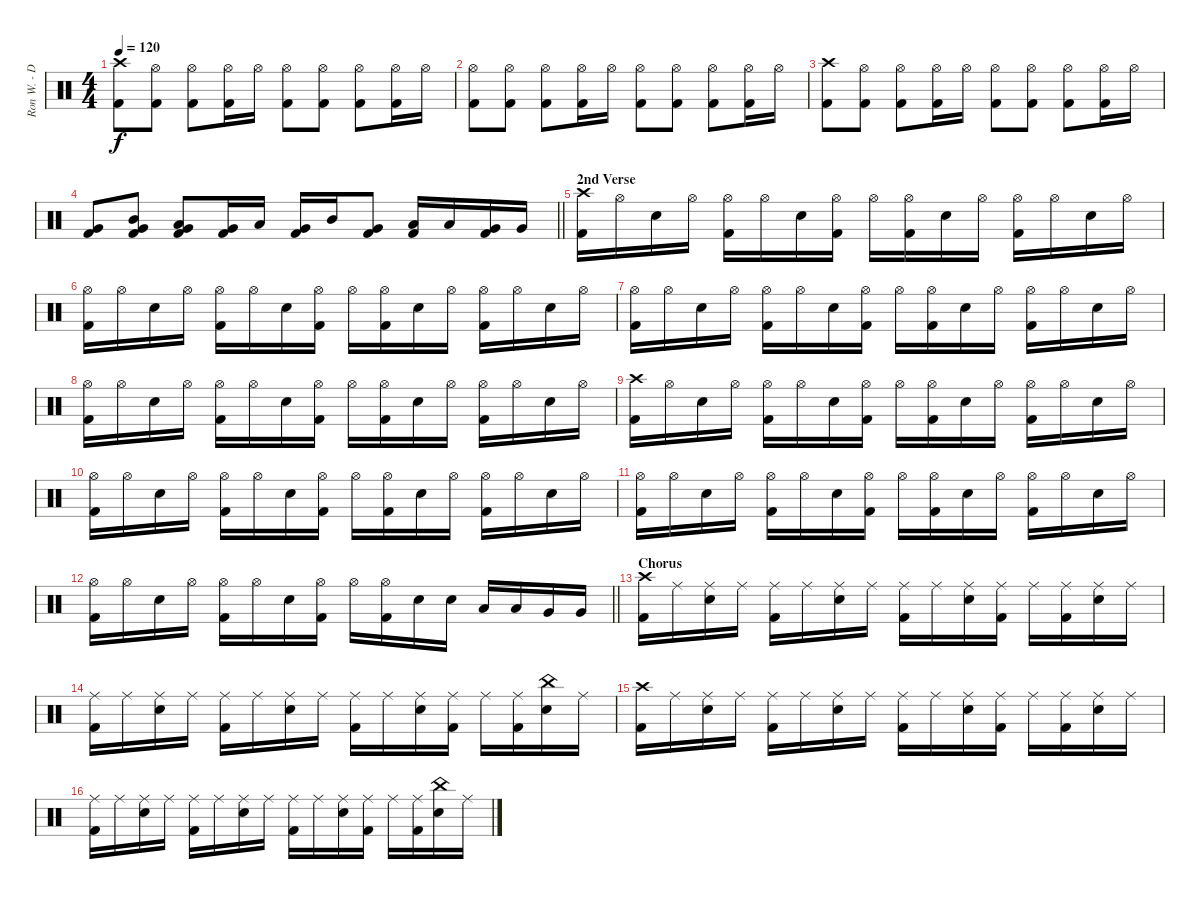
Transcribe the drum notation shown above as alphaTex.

\track ("Ron W. - Drums" "Ron W. - D") {instrument percussion}
\staff {score}
\articulation defaults
\ts (4 4)
\tempo 120
\clef neutral
\ks c
("Crash high (hit)" "Kick (hit) 2").8{dy f} ("Hi-Hat (open)" "Kick (hit) 2").8 ("Hi-Hat (open)" "Kick (hit) 2").8 ("Hi-Hat (open)" "Kick (hit) 2").16 "Hi-Hat (open)".16 ("Hi-Hat (open)" "Kick (hit) 2").8 ("Hi-Hat (open)" "Kick (hit) 2").8 ("Hi-Hat (open)" "Kick (hit) 2").8 ("Hi-Hat (open)" "Kick (hit) 2").16 "Hi-Hat (open)".16 |
("Hi-Hat (open)" "Kick (hit) 2").8 ("Hi-Hat (open)" "Kick (hit) 2").8 ("Hi-Hat (open)" "Kick (hit) 2").8 ("Hi-Hat (open)" "Kick (hit) 2").16 "Hi-Hat (open)".16 ("Hi-Hat (open)" "Kick (hit) 2").8 ("Hi-Hat (open)" "Kick (hit) 2").8 ("Hi-Hat (open)" "Kick (hit) 2").8 ("Hi-Hat (open)" "Kick (hit) 2").16 "Hi-Hat (open)".16 |
("Crash high (hit)" "Kick (hit) 2").8 ("Hi-Hat (open)" "Kick (hit) 2").8 ("Hi-Hat (open)" "Kick (hit) 2").8 ("Hi-Hat (open)" "Kick (hit) 2").16 "Hi-Hat (open)".16 ("Hi-Hat (open)" "Kick (hit) 2").8 ("Hi-Hat (open)" "Kick (hit) 2").8 ("Hi-Hat (open)" "Kick (hit) 2").8 ("Hi-Hat (open)" "Kick (hit) 2").16 "Hi-Hat (open)".16 |
\barLineRight lightlight
("Very Low Tom (hit)" "Kick (hit) 2").8 ("Mid Tom (hit)" "Very Low Tom (hit)" "Kick (hit) 2").8 ("Low Tom (hit)" "Very Low Tom (hit)" "Kick (hit) 2").8 ("Very Low Tom (hit)" "Kick (hit) 2").16 "Low Tom (hit)".16 ("Very Low Tom (hit)" "Kick (hit) 2").16 "Mid Tom (hit)".16 ("Very Low Tom (hit)" "Kick (hit) 2").8 ("Low Tom (hit)" "Kick (hit) 2").16 "Low Tom (hit)".16 ("Very Low Tom (hit)" "Kick (hit) 2").16 "Very Low Tom (hit)".16 |
\section ("" "2nd Verse")
("Crash high (hit)" "Kick (hit) 2").16 "Hi-Hat (open)".16 "Snare (hit) 2".16 "Hi-Hat (open)".16 ("Hi-Hat (open)" "Kick (hit) 2").16 "Hi-Hat (open)".16 "Snare (hit) 2".16 ("Hi-Hat (open)" "Kick (hit) 2").16 "Hi-Hat (open)".16 ("Hi-Hat (open)" "Kick (hit) 2").16 "Snare (hit) 2".16 "Hi-Hat (open)".16 ("Hi-Hat (open)" "Kick (hit) 2").16 "Hi-Hat (open)".16 "Snare (hit) 2".16 "Hi-Hat (open)".16 |
("Hi-Hat (open)" "Kick (hit) 2").16 "Hi-Hat (open)".16 "Snare (hit) 2".16 "Hi-Hat (open)".16 ("Hi-Hat (open)" "Kick (hit) 2").16 "Hi-Hat (open)".16 "Snare (hit) 2".16 ("Hi-Hat (open)" "Kick (hit) 2").16 "Hi-Hat (open)".16 ("Hi-Hat (open)" "Kick (hit) 2").16 "Snare (hit) 2".16 "Hi-Hat (open)".16 ("Hi-Hat (open)" "Kick (hit) 2").16 "Hi-Hat (open)".16 "Snare (hit) 2".16 "Hi-Hat (open)".16 |
("Hi-Hat (open)" "Kick (hit) 2").16 "Hi-Hat (open)".16 "Snare (hit) 2".16 "Hi-Hat (open)".16 ("Hi-Hat (open)" "Kick (hit) 2").16 "Hi-Hat (open)".16 "Snare (hit) 2".16 ("Hi-Hat (open)" "Kick (hit) 2").16 "Hi-Hat (open)".16 ("Hi-Hat (open)" "Kick (hit) 2").16 "Snare (hit) 2".16 "Hi-Hat (open)".16 ("Hi-Hat (open)" "Kick (hit) 2").16 "Hi-Hat (open)".16 "Snare (hit) 2".16 "Hi-Hat (open)".16 |
("Hi-Hat (open)" "Kick (hit) 2").16 "Hi-Hat (open)".16 "Snare (hit) 2".16 "Hi-Hat (open)".16 ("Hi-Hat (open)" "Kick (hit) 2").16 "Hi-Hat (open)".16 "Snare (hit) 2".16 ("Hi-Hat (open)" "Kick (hit) 2").16 "Hi-Hat (open)".16 ("Hi-Hat (open)" "Kick (hit) 2").16 "Snare (hit) 2".16 "Hi-Hat (open)".16 ("Hi-Hat (open)" "Kick (hit) 2").16 "Hi-Hat (open)".16 "Snare (hit) 2".16 "Hi-Hat (open)".16 |
("Crash high (hit)" "Kick (hit) 2").16 "Hi-Hat (open)".16 "Snare (hit) 2".16 "Hi-Hat (open)".16 ("Hi-Hat (open)" "Kick (hit) 2").16 "Hi-Hat (open)".16 "Snare (hit) 2".16 ("Hi-Hat (open)" "Kick (hit) 2").16 "Hi-Hat (open)".16 ("Hi-Hat (open)" "Kick (hit) 2").16 "Snare (hit) 2".16 "Hi-Hat (open)".16 ("Hi-Hat (open)" "Kick (hit) 2").16 "Hi-Hat (open)".16 "Snare (hit) 2".16 "Hi-Hat (open)".16 |
("Hi-Hat (open)" "Kick (hit) 2").16 "Hi-Hat (open)".16 "Snare (hit) 2".16 "Hi-Hat (open)".16 ("Hi-Hat (open)" "Kick (hit) 2").16 "Hi-Hat (open)".16 "Snare (hit) 2".16 ("Hi-Hat (open)" "Kick (hit) 2").16 "Hi-Hat (open)".16 ("Hi-Hat (open)" "Kick (hit) 2").16 "Snare (hit) 2".16 "Hi-Hat (open)".16 ("Hi-Hat (open)" "Kick (hit) 2").16 "Hi-Hat (open)".16 "Snare (hit) 2".16 "Hi-Hat (open)".16 |
("Hi-Hat (open)" "Kick (hit) 2").16 "Hi-Hat (open)".16 "Snare (hit) 2".16 "Hi-Hat (open)".16 ("Hi-Hat (open)" "Kick (hit) 2").16 "Hi-Hat (open)".16 "Snare (hit) 2".16 ("Hi-Hat (open)" "Kick (hit) 2").16 "Hi-Hat (open)".16 ("Hi-Hat (open)" "Kick (hit) 2").16 "Snare (hit) 2".16 "Hi-Hat (open)".16 ("Hi-Hat (open)" "Kick (hit) 2").16 "Hi-Hat (open)".16 "Snare (hit) 2".16 "Hi-Hat (open)".16 |
\barLineRight lightlight
("Hi-Hat (open)" "Kick (hit) 2").16 "Hi-Hat (open)".16 "Snare (hit) 2".16 "Hi-Hat (open)".16 ("Hi-Hat (open)" "Kick (hit) 2").16 "Hi-Hat (open)".16 "Snare (hit) 2".16 ("Hi-Hat (open)" "Kick (hit) 2").16 "Hi-Hat (open)".16 ("Hi-Hat (open)" "Kick (hit) 2").16 "Snare (hit) 2".16 "Snare (hit) 2".16 "Low Tom (hit)".16 "Low Tom (hit)".16 "Very Low Tom (hit)".16 "Very Low Tom (hit)".16 |
\section ("" "Chorus")
("Crash high (hit)" "Kick (hit) 2").16 "Ride (middle)".16 ("Ride (middle)" "Snare (hit) 2").16 "Ride (middle)".16 ("Ride (middle)" "Kick (hit) 2").16 "Ride (middle)".16 ("Ride (middle)" "Snare (hit) 2").16 "Ride (middle)".16 ("Ride (middle)" "Kick (hit) 2").16 "Ride (middle)".16 ("Ride (middle)" "Snare (hit) 2").16 ("Ride (middle)" "Kick (hit) 2").16 "Ride (middle)".16 ("Ride (middle)" "Kick (hit) 2").16 ("Ride (middle)" "Snare (hit) 2").16 "Ride (middle)".16 |
("Ride (middle)" "Kick (hit) 2").16 "Ride (middle)".16 ("Ride (middle)" "Snare (hit) 2").16 "Ride (middle)".16 ("Ride (middle)" "Kick (hit) 2").16 "Ride (middle)".16 ("Ride (middle)" "Snare (hit) 2").16 "Ride (middle)".16 ("Ride (middle)" "Kick (hit) 2").16 "Ride (middle)".16 ("Ride (middle)" "Snare (hit) 2").16 ("Ride (middle)" "Kick (hit) 2").16 "Ride (middle)".16 ("Ride (middle)" "Kick (hit) 2").16 ("China (hit)" "Snare (hit) 2").16 "Ride (middle)".16 |
("Crash high (hit)" "Kick (hit) 2").16 "Ride (middle)".16 ("Ride (middle)" "Snare (hit) 2").16 "Ride (middle)".16 ("Ride (middle)" "Kick (hit) 2").16 "Ride (middle)".16 ("Ride (middle)" "Snare (hit) 2").16 "Ride (middle)".16 ("Ride (middle)" "Kick (hit) 2").16 "Ride (middle)".16 ("Ride (middle)" "Snare (hit) 2").16 ("Ride (middle)" "Kick (hit) 2").16 "Ride (middle)".16 ("Ride (middle)" "Kick (hit) 2").16 ("Ride (middle)" "Snare (hit) 2").16 "Ride (middle)".16 |
("Ride (middle)" "Kick (hit) 2").16 "Ride (middle)".16 ("Ride (middle)" "Snare (hit) 2").16 "Ride (middle)".16 ("Ride (middle)" "Kick (hit) 2").16 "Ride (middle)".16 ("Ride (middle)" "Snare (hit) 2").16 "Ride (middle)".16 ("Ride (middle)" "Kick (hit) 2").16 "Ride (middle)".16 ("Ride (middle)" "Snare (hit) 2").16 ("Ride (middle)" "Kick (hit) 2").16 "Ride (middle)".16 ("Ride (middle)" "Kick (hit) 2").16 ("China (hit)" "Snare (hit) 2").16 "Ride (middle)".16
